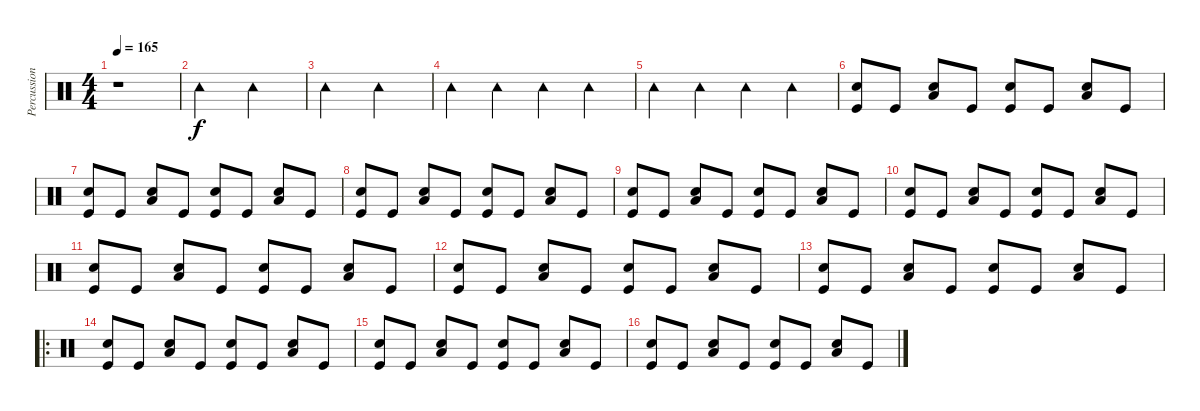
\track ("Percussions" "Percussion") {instrument percussion}
\staff {score}
\articulation defaults
\ts (4 4)
\tempo 165
\clef neutral
\ks c
r.1{dy f} |
"Tambourine (hit)".2 "Tambourine (hit)".2 |
"Tambourine (hit)".2 "Tambourine (hit)".2 |
"Tambourine (hit)".4 "Tambourine (hit)".4 "Tambourine (hit)".4 "Tambourine (hit)".4 |
"Tambourine (hit)".4 "Tambourine (hit)".4 "Tambourine (hit)".4 "Tambourine (hit)".4 |
("Snare (hit) 2" "Kick (hit)").8 "Kick (hit)".8 ("Snare (hit) 2" "Low Floor Tom (hit)").8 "Kick (hit)".8 ("Snare (hit) 2" "Kick (hit)").8 "Kick (hit)".8 ("Snare (hit) 2" "Low Floor Tom (hit)").8 "Kick (hit)".8 |
("Snare (hit) 2" "Kick (hit)").8 "Kick (hit)".8 ("Snare (hit) 2" "Low Floor Tom (hit)").8 "Kick (hit)".8 ("Snare (hit) 2" "Kick (hit)").8 "Kick (hit)".8 ("Snare (hit) 2" "Low Floor Tom (hit)").8 "Kick (hit)".8 |
("Snare (hit) 2" "Kick (hit)").8 "Kick (hit)".8 ("Snare (hit) 2" "Low Floor Tom (hit)").8 "Kick (hit)".8 ("Snare (hit) 2" "Kick (hit)").8 "Kick (hit)".8 ("Snare (hit) 2" "Low Floor Tom (hit)").8 "Kick (hit)".8 |
("Snare (hit) 2" "Kick (hit)").8 "Kick (hit)".8 ("Snare (hit) 2" "Low Floor Tom (hit)").8 "Kick (hit)".8 ("Snare (hit) 2" "Kick (hit)").8 "Kick (hit)".8 ("Snare (hit) 2" "Low Floor Tom (hit)").8 "Kick (hit)".8 |
("Snare (hit) 2" "Kick (hit)").8 "Kick (hit)".8 ("Snare (hit) 2" "Low Floor Tom (hit)").8 "Kick (hit)".8 ("Snare (hit) 2" "Kick (hit)").8 "Kick (hit)".8 ("Snare (hit) 2" "Low Floor Tom (hit)").8 "Kick (hit)".8 |
("Snare (hit) 2" "Kick (hit)").8 "Kick (hit)".8 ("Snare (hit) 2" "Low Floor Tom (hit)").8 "Kick (hit)".8 ("Snare (hit) 2" "Kick (hit)").8 "Kick (hit)".8 ("Snare (hit) 2" "Low Floor Tom (hit)").8 "Kick (hit)".8 |
("Snare (hit) 2" "Kick (hit)").8 "Kick (hit)".8 ("Snare (hit) 2" "Low Floor Tom (hit)").8 "Kick (hit)".8 ("Snare (hit) 2" "Kick (hit)").8 "Kick (hit)".8 ("Snare (hit) 2" "Low Floor Tom (hit)").8 "Kick (hit)".8 |
("Snare (hit) 2" "Kick (hit)").8 "Kick (hit)".8 ("Snare (hit) 2" "Low Floor Tom (hit)").8 "Kick (hit)".8 ("Snare (hit) 2" "Kick (hit)").8 "Kick (hit)".8 ("Snare (hit) 2" "Low Floor Tom (hit)").8 "Kick (hit)".8 |
\ro
("Snare (hit) 2" "Kick (hit)").8 "Kick (hit)".8 ("Snare (hit) 2" "Low Floor Tom (hit)").8 "Kick (hit)".8 ("Snare (hit) 2" "Kick (hit)").8 "Kick (hit)".8 ("Snare (hit) 2" "Low Floor Tom (hit)").8 "Kick (hit)".8 |
("Snare (hit) 2" "Kick (hit)").8 "Kick (hit)".8 ("Snare (hit) 2" "Low Floor Tom (hit)").8 "Kick (hit)".8 ("Snare (hit) 2" "Kick (hit)").8 "Kick (hit)".8 ("Snare (hit) 2" "Low Floor Tom (hit)").8 "Kick (hit)".8 |
("Snare (hit) 2" "Kick (hit)").8 "Kick (hit)".8 ("Snare (hit) 2" "Low Floor Tom (hit)").8 "Kick (hit)".8 ("Snare (hit) 2" "Kick (hit)").8 "Kick (hit)".8 ("Snare (hit) 2" "Low Floor Tom (hit)").8 "Kick (hit)".8
